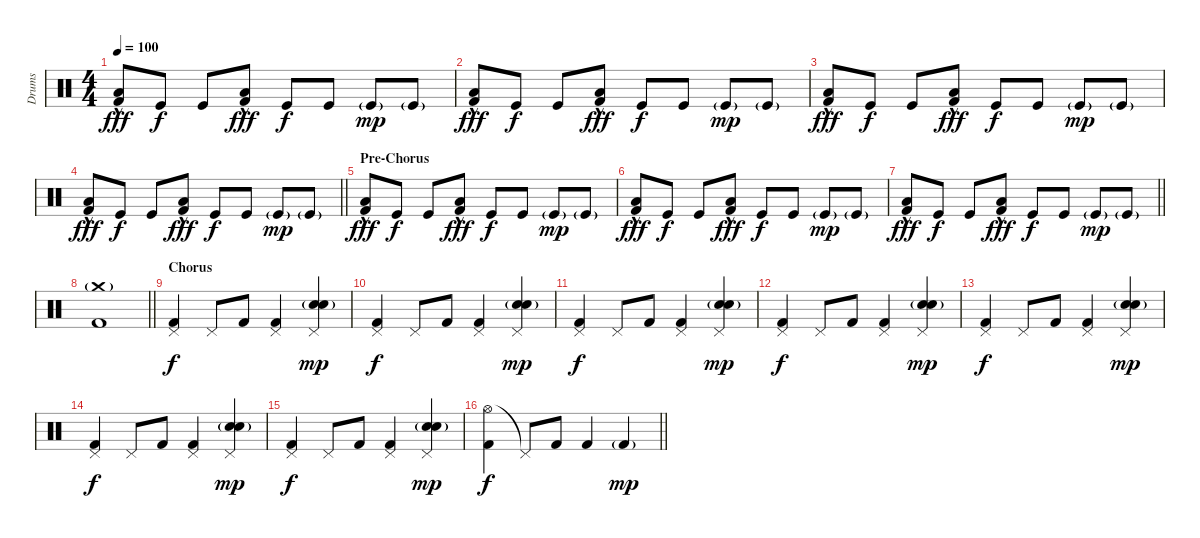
\track ("Drums" "Drums") {instrument percussion}
\staff {score}
\articulation defaults
\ts (4 4)
\tempo 100
\clef neutral
\ks c
("Low Floor Tom (hit)" "Kick (hit) 2"{hac}).8{dy fff} "Kick (hit)".8{dy f} "Kick (hit)".8 ("Low Floor Tom (hit)" "Kick (hit) 2"{hac}).8{dy fff} "Kick (hit)".8{dy f} "Kick (hit)".8 "Kick (hit)"{g}.8{dy mp} "Kick (hit)"{g}.8 |
("Low Floor Tom (hit)" "Kick (hit) 2"{hac}).8{dy fff} "Kick (hit)".8{dy f} "Kick (hit)".8 ("Low Floor Tom (hit)" "Kick (hit) 2"{hac}).8{dy fff} "Kick (hit)".8{dy f} "Kick (hit)".8 "Kick (hit)"{g}.8{dy mp} "Kick (hit)"{g}.8 |
("Low Floor Tom (hit)" "Kick (hit) 2"{hac}).8{dy fff} "Kick (hit)".8{dy f} "Kick (hit)".8 ("Low Floor Tom (hit)" "Kick (hit) 2"{hac}).8{dy fff} "Kick (hit)".8{dy f} "Kick (hit)".8 "Kick (hit)"{g}.8{dy mp} "Kick (hit)"{g}.8 |
\barLineRight lightlight
("Low Floor Tom (hit)" "Kick (hit) 2"{hac}).8{dy fff} "Kick (hit)".8{dy f} "Kick (hit)".8 ("Low Floor Tom (hit)" "Kick (hit) 2"{hac}).8{dy fff} "Kick (hit)".8{dy f} "Kick (hit)".8 "Kick (hit)"{g}.8{dy mp} "Kick (hit)"{g}.8 |
\section ("" "Pre-Chorus")
("Low Floor Tom (hit)" "Kick (hit) 2"{hac}).8{dy fff} "Kick (hit)".8{dy f} "Kick (hit)".8 ("Low Floor Tom (hit)" "Kick (hit) 2"{hac}).8{dy fff} "Kick (hit)".8{dy f} "Kick (hit)".8 "Kick (hit)"{g}.8{dy mp} "Kick (hit)"{g}.8 |
("Low Floor Tom (hit)" "Kick (hit) 2"{hac}).8{dy fff} "Kick (hit)".8{dy f} "Kick (hit)".8 ("Low Floor Tom (hit)" "Kick (hit) 2"{hac}).8{dy fff} "Kick (hit)".8{dy f} "Kick (hit)".8 "Kick (hit)"{g}.8{dy mp} "Kick (hit)"{g}.8 |
\barLineRight lightlight
("Low Floor Tom (hit)" "Kick (hit) 2"{hac}).8{dy fff} "Kick (hit)".8{dy f} "Kick (hit)".8 ("Low Floor Tom (hit)" "Kick (hit) 2"{hac}).8{dy fff} "Kick (hit)".8{dy f} "Kick (hit)".8 "Kick (hit)"{g}.8{dy mp} "Kick (hit)"{g}.8 |
\barLineRight lightlight
("Crash medium (hit)"{g} "Kick (hit) 2").1 |
\section ("" "Chorus")
("Pedal Hi-Hat (hit)" "Kick (hit) 2").4{dy f} "Pedal Hi-Hat (hit)".8 "Kick (hit) 2".8 ("Pedal Hi-Hat (hit)" "Kick (hit) 2").4 ("Pedal Hi-Hat (hit)" "Snare (hit) 2" "Electric Snare (hit)"{g}).4{dy mp} |
("Pedal Hi-Hat (hit)" "Kick (hit) 2").4{dy f} "Pedal Hi-Hat (hit)".8 "Kick (hit) 2".8 ("Pedal Hi-Hat (hit)" "Kick (hit) 2").4 ("Pedal Hi-Hat (hit)" "Snare (hit) 2" "Electric Snare (hit)"{g}).4{dy mp} |
("Pedal Hi-Hat (hit)" "Kick (hit) 2").4{dy f} "Pedal Hi-Hat (hit)".8 "Kick (hit) 2".8 ("Pedal Hi-Hat (hit)" "Kick (hit) 2").4 ("Pedal Hi-Hat (hit)" "Snare (hit) 2" "Electric Snare (hit)"{g}).4{dy mp} |
("Pedal Hi-Hat (hit)" "Kick (hit) 2").4{dy f} "Pedal Hi-Hat (hit)".8 "Kick (hit) 2".8 ("Pedal Hi-Hat (hit)" "Kick (hit) 2").4 ("Pedal Hi-Hat (hit)" "Snare (hit) 2" "Electric Snare (hit)"{g}).4{dy mp} |
("Pedal Hi-Hat (hit)" "Kick (hit) 2").4{dy f} "Pedal Hi-Hat (hit)".8 "Kick (hit) 2".8 ("Pedal Hi-Hat (hit)" "Kick (hit) 2").4 ("Pedal Hi-Hat (hit)" "Snare (hit) 2" "Electric Snare (hit)"{g}).4{dy mp} |
("Pedal Hi-Hat (hit)" "Kick (hit) 2").4{dy f} "Pedal Hi-Hat (hit)".8 "Kick (hit) 2".8 ("Pedal Hi-Hat (hit)" "Kick (hit) 2").4 ("Pedal Hi-Hat (hit)" "Snare (hit) 2" "Electric Snare (hit)"{g}).4{dy mp} |
("Pedal Hi-Hat (hit)" "Kick (hit) 2").4{dy f} "Pedal Hi-Hat (hit)".8 "Kick (hit) 2".8 ("Pedal Hi-Hat (hit)" "Kick (hit) 2").4 ("Pedal Hi-Hat (hit)" "Snare (hit) 2" "Electric Snare (hit)"{g}).4{dy mp} |
\barLineRight lightlight
("Hi-Hat (open)" "Kick (hit) 2").4{dy f} "Pedal Hi-Hat (hit)"{t}.8 "Kick (hit) 2".8 "Kick (hit) 2".4 "Kick (hit) 2"{g}.4{dy mp}
